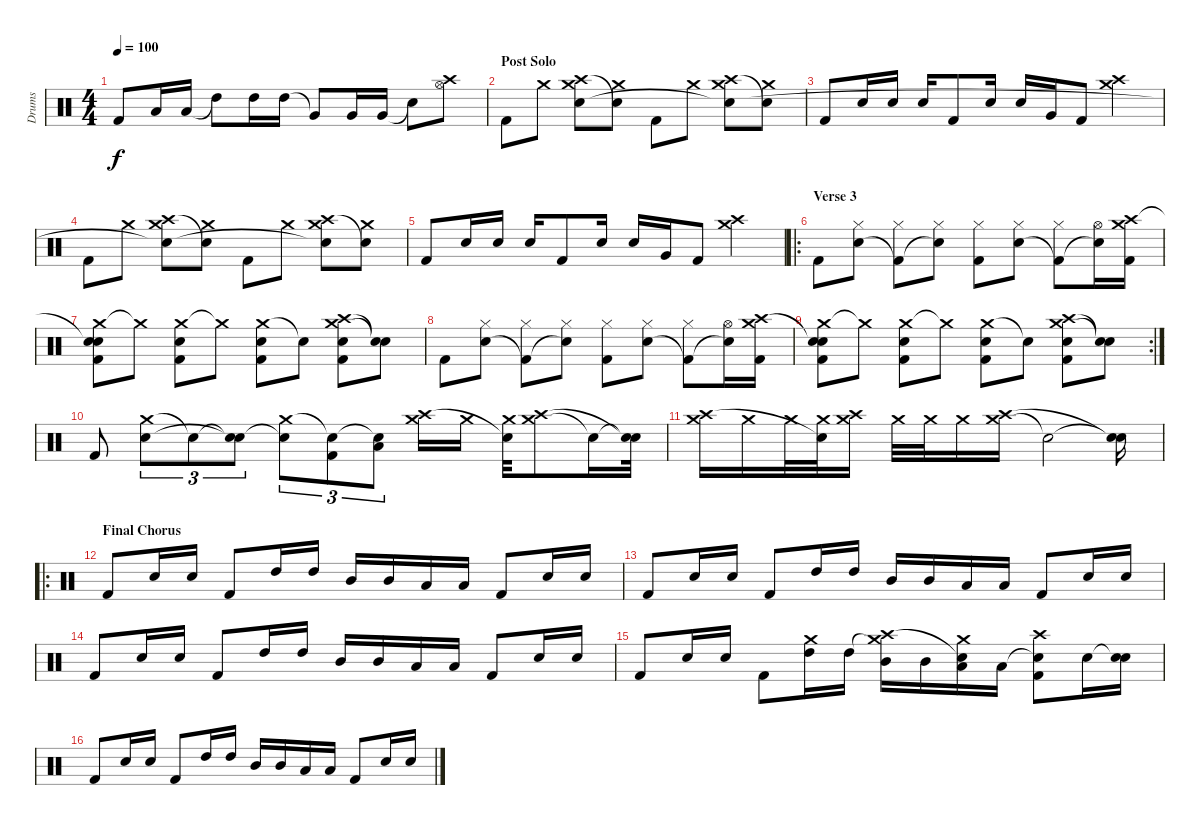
\track ("Drums" "Drums") {instrument percussion}
\staff {score}
\articulation defaults
\ts (4 4)
\tempo 100
\clef neutral
\ks c "Kick (hit) 2".8{dy f} "Low Floor Tom (hit)".16 "Low Floor Tom (hit)".16 "High Tom (hit)"{t}.8 "High Tom (hit)".16 "High Tom (hit)".16 "Very Low Tom (hit)"{t}.8 "Very Low Tom (hit)".16 "Very Low Tom (hit)".16 "Snare (hit)"{t}.8
("Crash high (hit)" "Hi-Hat (open)").8 |
\section ("" "Post Solo")
"Kick (hit) 2".8 "Crash medium (hit)".8 ("Crash medium (hit)" "Crash high (hit)" "Snare (hit)").8 ("Crash medium (hit)" "Snare (hit)"{t}).8 "Kick (hit) 2".8 "Crash medium (hit)".8 ("Crash medium (hit)" "Crash high (hit)" "Snare (hit)"{t}).8 ("Crash medium (hit)" "Snare (hit)"{t}).8 |
"Kick (hit) 2".8 "Snare (hit) 2".16 "Snare (hit) 2".16 "Snare (hit) 2".16 "Kick (hit) 2".8 "Snare (hit) 2".16 "Snare (hit) 2".16 "Very Low Tom (hit)".16 "Kick (hit) 2".8 ("Crash medium (hit)" "Crash high (hit)").4 |
"Kick (hit) 2".8 "Crash medium (hit)".8 ("Crash medium (hit)" "Crash high (hit)" "Snare (hit)"{t}).8 ("Crash medium (hit)" "Snare (hit)"{t}).8 "Kick (hit) 2".8 "Crash medium (hit)".8 ("Crash medium (hit)" "Crash high (hit)" "Snare (hit)"{t}).8 ("Crash medium (hit)" "Snare (hit)"{t}).8 |
"Kick (hit) 2".8 "Snare (hit) 2".16 "Snare (hit) 2".16 "Snare (hit) 2".16 "Kick (hit) 2".8 "Snare (hit) 2".16 "Snare (hit) 2".16 "Very Low Tom (hit)".16 "Kick (hit) 2".8 ("Crash medium (hit)" "Crash high (hit)").4 |
\ro
\section ("" "Verse 3")
"Kick (hit) 2".8 ("Hi-Hat (closed)" "Snare (hit) 2").8 ("Hi-Hat (closed)" "Kick (hit) 2"{t}).8 ("Hi-Hat (closed)" "Snare (hit) 2"{t}).8 ("Hi-Hat (closed)" "Kick (hit) 2").8 ("Hi-Hat (closed)" "Snare (hit) 2").8 ("Hi-Hat (closed)" "Kick (hit) 2"{t}).8 ("Hi-Hat (open)" "Snare (hit) 2"{t}).16 ("Crash medium (hit)" "Crash high (hit)" "Kick (hit) 2").16 |
("Crash medium (hit)" "Snare (hit)"{t} "Snare (hit) 2" "Kick (hit) 2").8 "Crash medium (hit)"{t}.8 ("Crash medium (hit)" "Snare (hit) 2" "Kick (hit) 2").8 "Crash medium (hit)"{t}.8 ("Crash medium (hit)" "Snare (hit) 2" "Kick (hit) 2").8 "Snare (hit)"{t}.8 ("Crash medium (hit)" "Crash high (hit)" "Snare (hit) 2" "Kick (hit) 2").8 ("Snare (hit)"{t} "Snare (hit)"{t}).8 |
"Kick (hit) 2".8 ("Hi-Hat (closed)" "Snare (hit) 2").8 ("Hi-Hat (closed)" "Kick (hit) 2"{t}).8 ("Hi-Hat (closed)" "Snare (hit) 2"{t}).8 ("Hi-Hat (closed)" "Kick (hit) 2").8 ("Hi-Hat (closed)" "Snare (hit) 2").8 ("Hi-Hat (closed)" "Kick (hit) 2"{t}).8 ("Hi-Hat (open)" "Snare (hit) 2"{t}).16 ("Crash medium (hit)" "Crash high (hit)" "Kick (hit) 2").16 |
\rc 2
("Crash medium (hit)" "Snare (hit)"{t} "Snare (hit) 2" "Kick (hit) 2").8 "Crash medium (hit)"{t}.8 ("Crash medium (hit)" "Snare (hit) 2" "Kick (hit) 2").8 "Crash medium (hit)"{t}.8 ("Crash medium (hit)" "Snare (hit) 2" "Kick (hit) 2").8 "Snare (hit)"{t}.8 ("Crash medium (hit)" "Crash high (hit)" "Snare (hit) 2" "Kick (hit) 2").8 ("Snare (hit)"{t} "Snare (hit)"{t}).8 |
"Kick (hit) 2".8 ("Crash medium (hit)" "Snare (hit) 2").8{tu (3 2)} "Snare (hit) 2"{t}.8{tu (3 2)} ("Snare (hit)"{t} "Snare (hit) 2"{t}).8{tu (3 2)} ("Crash medium (hit)" "Snare (hit) 2"{t}).8{tu (3 2)} ("Snare (hit) 2"{t} "Kick (hit) 2").8{tu (3 2)} ("Snare (hit)"{t} "Low Floor Tom (hit)").8{tu (3 2)} ("Crash medium (hit)" "Crash high (hit)").16 "Crash medium (hit)".16 ("Crash medium (hit)" "Snare (hit)"{t}).32 ("Crash medium (hit)" "Crash high (hit)").8 "Snare (hit)"{t}.16 ("Snare (hit)"{t} "Snare (hit)"{t}).32 |
("Crash medium (hit)" "Crash high (hit)").16 "Crash medium (hit)".16 "Crash medium (hit)".32 ("Crash medium (hit)" "Snare (hit)"{t}).32 ("Crash medium (hit)" "Crash high (hit)").16 "Crash medium (hit)".32 "Crash medium (hit)".32 "Crash medium (hit)".16 ("Crash medium (hit)" "Crash high (hit)").16 "Snare (hit)"{t}.2 ("Snare (hit)"{t} "Snare (hit)"{t}).16 |
\ro
\section ("" "Final Chorus")
"Kick (hit) 2".8 "Snare (hit) 2".16 "Snare (hit) 2".16 "Kick (hit) 2".8 "High Tom (hit)".16 "High Tom (hit)".16 "Mid Tom (hit)".16 "Mid Tom (hit)".16 "Low Floor Tom (hit)".16 "Low Floor Tom (hit)".16 "Kick (hit) 2".8 "Snare (hit) 2".16 "Snare (hit) 2".16 |
"Kick (hit) 2".8 "Snare (hit) 2".16 "Snare (hit) 2".16 "Kick (hit) 2".8 "High Tom (hit)".16 "High Tom (hit)".16 "Mid Tom (hit)".16 "Mid Tom (hit)".16 "Low Floor Tom (hit)".16 "Low Floor Tom (hit)".16 "Kick (hit) 2".8 "Snare (hit) 2".16 "Snare (hit) 2".16 |
"Kick (hit) 2".8 "Snare (hit) 2".16 "Snare (hit) 2".16 "Kick (hit) 2".8 "High Tom (hit)".16 "High Tom (hit)".16 "Mid Tom (hit)".16 "Mid Tom (hit)".16 "Low Floor Tom (hit)".16 "Low Floor Tom (hit)".16 "Kick (hit) 2".8 "Snare (hit) 2".16 "Snare (hit) 2".16 |
"Kick (hit) 2".8 "Snare (hit) 2".16 "Snare (hit) 2".16 "Kick (hit) 2".8 ("Crash medium (hit)" "High Tom (hit)").16 "High Tom (hit)".16 ("Crash medium (hit)"{t} "Crash high (hit)" "Mid Tom (hit)").16 "Mid Tom (hit)".16 ("Crash medium (hit)" "Snare (hit)"{t} "Low Floor Tom (hit)").16 "Low Floor Tom (hit)".16 ("Snare (hit)"{t} "Crash high (hit)" "Kick (hit) 2").8 "Snare (hit) 2".16 ("Snare (hit)"{t} "Snare (hit) 2").16 |
"Kick (hit) 2".8 "Snare (hit) 2".16 "Snare (hit) 2".16 "Kick (hit) 2".8 "High Tom (hit)".16 "High Tom (hit)".16 "Mid Tom (hit)".16 "Mid Tom (hit)".16 "Low Floor Tom (hit)".16 "Low Floor Tom (hit)".16 "Kick (hit) 2".8 "Snare (hit) 2".16 "Snare (hit) 2".16
